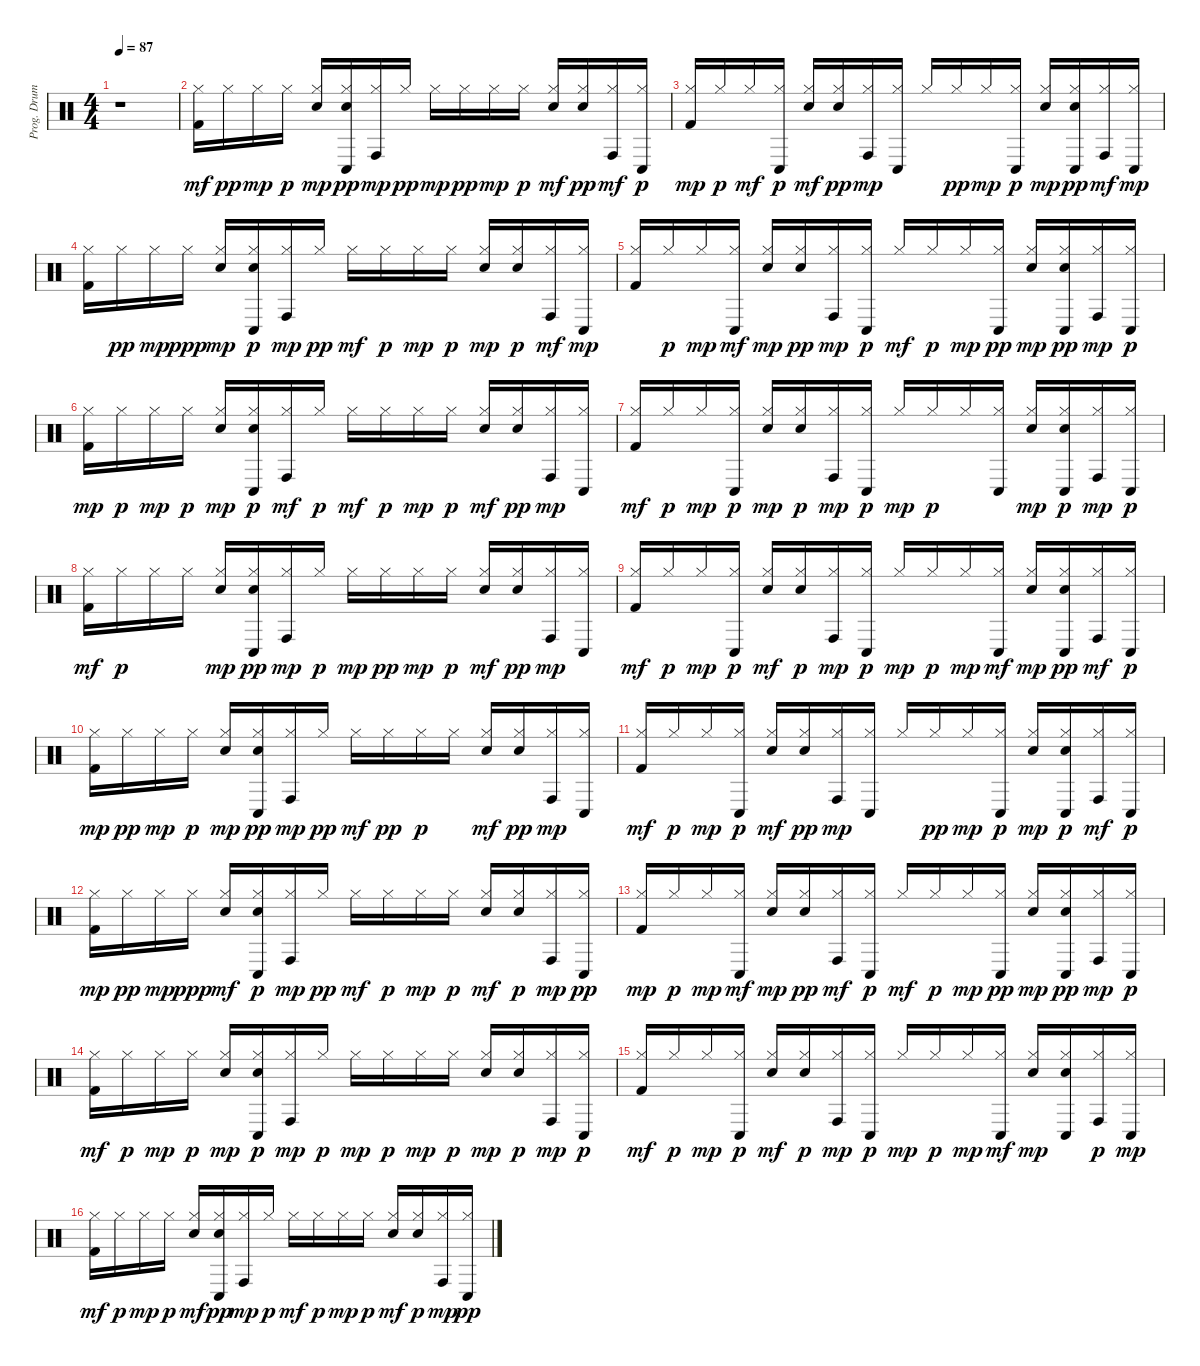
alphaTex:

\track ("Prog. Drums" "Prog. Drum") {instrument percussion}
\staff {score}
\articulation defaults
\ts (4 4)
\tempo 87
\clef neutral
\ks c
r.1{dy mf} |
("Hi-Hat (closed)" "Kick (hit) 2").16 "Hi-Hat (closed)".16{dy pp} "Hi-Hat (closed)".16{dy mp} "Hi-Hat (closed)".16{dy p} ("Snare (hit) 2" "Hi-Hat (closed)").16{dy mp} ("Conga low (hit)" "Hi-Hat (closed)" "Snare (hit) 2").16{dy pp} ("Conga high (hit)" "Hi-Hat (closed)").16{dy mp} "Hi-Hat (closed)".16{dy pp} "Hi-Hat (closed)".16{dy mp} "Hi-Hat (closed)".16{dy pp} "Hi-Hat (closed)".16{dy mp} "Hi-Hat (closed)".16{dy p} ("Snare (hit) 2" "Hi-Hat (closed)").16{dy mf} ("Snare (hit) 2" "Hi-Hat (closed)").16{dy pp} ("Hi-Hat (closed)" "Conga high (hit)").16{dy mf} ("Conga low (hit)" "Hi-Hat (closed)").16{dy p} |
("Kick (hit) 2" "Hi-Hat (closed)").16{dy mp} "Hi-Hat (closed)".16{dy p} "Hi-Hat (closed)".16{dy mf} ("Conga low (hit)" "Hi-Hat (closed)").16{dy p} ("Hi-Hat (closed)" "Snare (hit) 2").16{dy mf} ("Snare (hit) 2" "Hi-Hat (closed)").16{dy pp} ("Conga high (hit)" "Hi-Hat (closed)").16{dy mp} ("Hi-Hat (closed)" "Conga low (hit)").16 "Hi-Hat (closed)".16 "Hi-Hat (closed)".16{dy pp} "Hi-Hat (closed)".16{dy mp} ("Conga low (hit)" "Hi-Hat (closed)").16{dy p} ("Snare (hit) 2" "Hi-Hat (closed)").16{dy mp} ("Conga low (hit)" "Hi-Hat (closed)" "Snare (hit) 2").16{dy pp} ("Hi-Hat (closed)" "Conga high (hit)").16{dy mf} ("Hi-Hat (closed)" "Conga low (hit)").16{dy mp} |
("Kick (hit) 2" "Hi-Hat (closed)").16 "Hi-Hat (closed)".16{dy pp} "Hi-Hat (closed)".16{dy mp} "Hi-Hat (closed)".16{dy ppp} ("Snare (hit) 2" "Hi-Hat (closed)").16{dy mp} ("Snare (hit) 2" "Conga low (hit)" "Hi-Hat (closed)").16{dy p} ("Hi-Hat (closed)" "Conga high (hit)").16{dy mp} "Hi-Hat (closed)".16{dy pp} "Hi-Hat (closed)".16{dy mf} "Hi-Hat (closed)".16{dy p} "Hi-Hat (closed)".16{dy mp} "Hi-Hat (closed)".16{dy p} ("Hi-Hat (closed)" "Snare (hit) 2").16{dy mp} ("Snare (hit) 2" "Hi-Hat (closed)").16{dy p} ("Hi-Hat (closed)" "Conga high (hit)").16{dy mf} ("Hi-Hat (closed)" "Conga low (hit)").16{dy mp} |
("Kick (hit) 2" "Hi-Hat (closed)").16 "Hi-Hat (closed)".16{dy p} "Hi-Hat (closed)".16{dy mp} ("Hi-Hat (closed)" "Conga low (hit)").16{dy mf} ("Snare (hit) 2" "Hi-Hat (closed)").16{dy mp} ("Snare (hit) 2" "Hi-Hat (closed)").16{dy pp} ("Conga high (hit)" "Hi-Hat (closed)").16{dy mp} ("Conga low (hit)" "Hi-Hat (closed)").16{dy p} "Hi-Hat (closed)".16{dy mf} "Hi-Hat (closed)".16{dy p} "Hi-Hat (closed)".16{dy mp} ("Conga low (hit)" "Hi-Hat (closed)").16{dy pp} ("Hi-Hat (closed)" "Snare (hit) 2").16{dy mp} ("Conga low (hit)" "Hi-Hat (closed)" "Snare (hit) 2").16{dy pp} ("Conga high (hit)" "Hi-Hat (closed)").16{dy mp} ("Conga low (hit)" "Hi-Hat (closed)").16{dy p} |
("Kick (hit) 2" "Hi-Hat (closed)").16{dy mp} "Hi-Hat (closed)".16{dy p} "Hi-Hat (closed)".16{dy mp} "Hi-Hat (closed)".16{dy p} ("Hi-Hat (closed)" "Snare (hit) 2").16{dy mp} ("Snare (hit) 2" "Conga low (hit)" "Hi-Hat (closed)").16{dy p} ("Hi-Hat (closed)" "Conga high (hit)").16{dy mf} "Hi-Hat (closed)".16{dy p} "Hi-Hat (closed)".16{dy mf} "Hi-Hat (closed)".16{dy p} "Hi-Hat (closed)".16{dy mp} "Hi-Hat (closed)".16{dy p} ("Hi-Hat (closed)" "Snare (hit) 2").16{dy mf} ("Hi-Hat (closed)" "Snare (hit) 2").16{dy pp} ("Conga high (hit)" "Hi-Hat (closed)").16{dy mp} ("Hi-Hat (closed)" "Conga low (hit)").16 |
("Hi-Hat (closed)" "Kick (hit) 2").16{dy mf} "Hi-Hat (closed)".16{dy p} "Hi-Hat (closed)".16{dy mp} ("Conga low (hit)" "Hi-Hat (closed)").16{dy p} ("Hi-Hat (closed)" "Snare (hit) 2").16{dy mp} ("Snare (hit) 2" "Hi-Hat (closed)").16{dy p} ("Conga high (hit)" "Hi-Hat (closed)").16{dy mp} ("Conga low (hit)" "Hi-Hat (closed)").16{dy p} "Hi-Hat (closed)".16{dy mp} "Hi-Hat (closed)".16{dy p} "Hi-Hat (closed)".16 ("Conga low (hit)" "Hi-Hat (closed)").16 ("Snare (hit) 2" "Hi-Hat (closed)").16{dy mp} ("Snare (hit) 2" "Conga low (hit)" "Hi-Hat (closed)").16{dy p} ("Hi-Hat (closed)" "Conga high (hit)").16{dy mp} ("Conga low (hit)" "Hi-Hat (closed)").16{dy p} |
("Hi-Hat (closed)" "Kick (hit) 2").16{dy mf} "Hi-Hat (closed)".16{dy p} "Hi-Hat (closed)".16 "Hi-Hat (closed)".16 ("Snare (hit) 2" "Hi-Hat (closed)").16{dy mp} ("Snare (hit) 2" "Conga low (hit)" "Hi-Hat (closed)").16{dy pp} ("Hi-Hat (closed)" "Conga high (hit)").16{dy mp} "Hi-Hat (closed)".16{dy p} "Hi-Hat (closed)".16{dy mp} "Hi-Hat (closed)".16{dy pp} "Hi-Hat (closed)".16{dy mp} "Hi-Hat (closed)".16{dy p} ("Snare (hit) 2" "Hi-Hat (closed)").16{dy mf} ("Hi-Hat (closed)" "Snare (hit) 2").16{dy pp} ("Conga high (hit)" "Hi-Hat (closed)").16{dy mp} ("Hi-Hat (closed)" "Conga low (hit)").16 |
("Kick (hit) 2" "Hi-Hat (closed)").16{dy mf} "Hi-Hat (closed)".16{dy p} "Hi-Hat (closed)".16{dy mp} ("Conga low (hit)" "Hi-Hat (closed)").16{dy p} ("Hi-Hat (closed)" "Snare (hit) 2").16{dy mf} ("Snare (hit) 2" "Hi-Hat (closed)").16{dy p} ("Conga high (hit)" "Hi-Hat (closed)").16{dy mp} ("Conga low (hit)" "Hi-Hat (closed)").16{dy p} "Hi-Hat (closed)".16{dy mp} "Hi-Hat (closed)".16{dy p} "Hi-Hat (closed)".16{dy mp} ("Hi-Hat (closed)" "Conga low (hit)").16{dy mf} ("Snare (hit) 2" "Hi-Hat (closed)").16{dy mp} ("Conga low (hit)" "Hi-Hat (closed)" "Snare (hit) 2").16{dy pp} ("Hi-Hat (closed)" "Conga high (hit)").16{dy mf} ("Conga low (hit)" "Hi-Hat (closed)").16{dy p} |
("Kick (hit) 2" "Hi-Hat (closed)").16{dy mp} "Hi-Hat (closed)".16{dy pp} "Hi-Hat (closed)".16{dy mp} "Hi-Hat (closed)".16{dy p} ("Snare (hit) 2" "Hi-Hat (closed)").16{dy mp} ("Snare (hit) 2" "Conga low (hit)" "Hi-Hat (closed)").16{dy pp} ("Hi-Hat (closed)" "Conga high (hit)").16{dy mp} "Hi-Hat (closed)".16{dy pp} "Hi-Hat (closed)".16{dy mf} "Hi-Hat (closed)".16{dy pp} "Hi-Hat (closed)".16{dy p} "Hi-Hat (closed)".16 ("Snare (hit) 2" "Hi-Hat (closed)").16{dy mf} ("Hi-Hat (closed)" "Snare (hit) 2").16{dy pp} ("Conga high (hit)" "Hi-Hat (closed)").16{dy mp} ("Hi-Hat (closed)" "Conga low (hit)").16 |
("Kick (hit) 2" "Hi-Hat (closed)").16{dy mf} "Hi-Hat (closed)".16{dy p} "Hi-Hat (closed)".16{dy mp} ("Conga low (hit)" "Hi-Hat (closed)").16{dy p} ("Snare (hit) 2" "Hi-Hat (closed)").16{dy mf} ("Hi-Hat (closed)" "Snare (hit) 2").16{dy pp} ("Conga high (hit)" "Hi-Hat (closed)").16{dy mp} ("Hi-Hat (closed)" "Conga low (hit)").16 "Hi-Hat (closed)".16 "Hi-Hat (closed)".16{dy pp} "Hi-Hat (closed)".16{dy mp} ("Conga low (hit)" "Hi-Hat (closed)").16{dy p} ("Snare (hit) 2" "Hi-Hat (closed)").16{dy mp} ("Snare (hit) 2" "Conga low (hit)" "Hi-Hat (closed)").16{dy p} ("Hi-Hat (closed)" "Conga high (hit)").16{dy mf} ("Conga low (hit)" "Hi-Hat (closed)").16{dy p} |
("Kick (hit) 2" "Hi-Hat (closed)").16{dy mp} "Hi-Hat (closed)".16{dy pp} "Hi-Hat (closed)".16{dy mp} "Hi-Hat (closed)".16{dy ppp} ("Hi-Hat (closed)" "Snare (hit) 2").16{dy mf} ("Conga low (hit)" "Snare (hit) 2" "Hi-Hat (closed)").16{dy p} ("Conga high (hit)" "Hi-Hat (closed)").16{dy mp} "Hi-Hat (closed)".16{dy pp} "Hi-Hat (closed)".16{dy mf} "Hi-Hat (closed)".16{dy p} "Hi-Hat (closed)".16{dy mp} "Hi-Hat (closed)".16{dy p} ("Hi-Hat (closed)" "Snare (hit) 2").16{dy mf} ("Snare (hit) 2" "Hi-Hat (closed)").16{dy p} ("Conga high (hit)" "Hi-Hat (closed)").16{dy mp} ("Conga low (hit)" "Hi-Hat (closed)").16{dy pp} |
("Kick (hit) 2" "Hi-Hat (closed)").16{dy mp} "Hi-Hat (closed)".16{dy p} "Hi-Hat (closed)".16{dy mp} ("Hi-Hat (closed)" "Conga low (hit)").16{dy mf} ("Hi-Hat (closed)" "Snare (hit) 2").16{dy mp} ("Hi-Hat (closed)" "Snare (hit) 2").16{dy pp} ("Hi-Hat (closed)" "Conga high (hit)").16{dy mf} ("Conga low (hit)" "Hi-Hat (closed)").16{dy p} "Hi-Hat (closed)".16{dy mf} "Hi-Hat (closed)".16{dy p} "Hi-Hat (closed)".16{dy mp} ("Conga low (hit)" "Hi-Hat (closed)").16{dy pp} ("Snare (hit) 2" "Hi-Hat (closed)").16{dy mp} ("Conga low (hit)" "Hi-Hat (closed)" "Snare (hit) 2").16{dy pp} ("Conga high (hit)" "Hi-Hat (closed)").16{dy mp} ("Conga low (hit)" "Hi-Hat (closed)").16{dy p} |
("Kick (hit) 2" "Hi-Hat (closed)").16{dy mf} "Hi-Hat (closed)".16{dy p} "Hi-Hat (closed)".16{dy mp} "Hi-Hat (closed)".16{dy p} ("Snare (hit) 2" "Hi-Hat (closed)").16{dy mp} ("Conga low (hit)" "Snare (hit) 2" "Hi-Hat (closed)").16{dy p} ("Conga high (hit)" "Hi-Hat (closed)").16{dy mp} "Hi-Hat (closed)".16{dy p} "Hi-Hat (closed)".16{dy mp} "Hi-Hat (closed)".16{dy p} "Hi-Hat (closed)".16{dy mp} "Hi-Hat (closed)".16{dy p} ("Hi-Hat (closed)" "Snare (hit) 2").16{dy mp} ("Snare (hit) 2" "Hi-Hat (closed)").16{dy p} ("Conga high (hit)" "Hi-Hat (closed)").16{dy mp} ("Conga low (hit)" "Hi-Hat (closed)").16{dy p} |
("Hi-Hat (closed)" "Kick (hit) 2").16{dy mf} "Hi-Hat (closed)".16{dy p} "Hi-Hat (closed)".16{dy mp} ("Conga low (hit)" "Hi-Hat (closed)").16{dy p} ("Hi-Hat (closed)" "Snare (hit) 2").16{dy mf} ("Snare (hit) 2" "Hi-Hat (closed)").16{dy p} ("Conga high (hit)" "Hi-Hat (closed)").16{dy mp} ("Conga low (hit)" "Hi-Hat (closed)").16{dy p} "Hi-Hat (closed)".16{dy mp} "Hi-Hat (closed)".16{dy p} "Hi-Hat (closed)".16{dy mp} ("Hi-Hat (closed)" "Conga low (hit)").16{dy mf} ("Snare (hit) 2" "Hi-Hat (closed)").16{dy mp} ("Hi-Hat (closed)" "Snare (hit) 2" "Conga low (hit)").16 ("Conga high (hit)" "Hi-Hat (closed)").16{dy p} ("Hi-Hat (closed)" "Conga low (hit)").16{dy mp} |
("Kick (hit) 2" "Hi-Hat (closed)").16{dy mf} "Hi-Hat (closed)".16{dy p} "Hi-Hat (closed)".16{dy mp} "Hi-Hat (closed)".16{dy p} ("Hi-Hat (closed)" "Snare (hit) 2").16{dy mf} ("Conga low (hit)" "Snare (hit) 2" "Hi-Hat (closed)").16{dy pp} ("Conga high (hit)" "Hi-Hat (closed)").16{dy mp} "Hi-Hat (closed)".16{dy p} "Hi-Hat (closed)".16{dy mf} "Hi-Hat (closed)".16{dy p} "Hi-Hat (closed)".16{dy mp} "Hi-Hat (closed)".16{dy p} ("Hi-Hat (closed)" "Snare (hit) 2").16{dy mf} ("Snare (hit) 2" "Hi-Hat (closed)").16{dy p} ("Conga high (hit)" "Hi-Hat (closed)").16{dy mp} ("Conga low (hit)" "Hi-Hat (closed)").16{dy pp}
